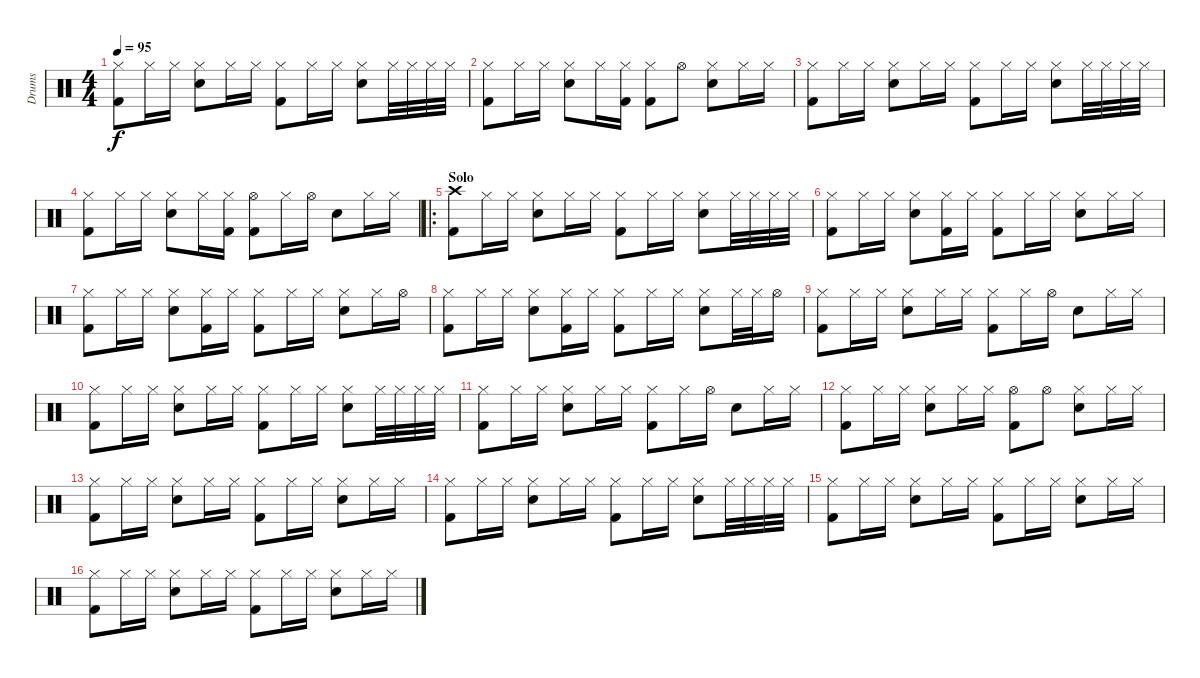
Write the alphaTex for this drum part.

\track ("Drums" "Drums") {instrument percussion}
\staff {score}
\articulation defaults
\ts (4 4)
\tempo 95
\clef neutral
\ks c
("Hi-Hat (closed)" "Kick (hit) 2").8{dy f} "Hi-Hat (closed)".16 "Hi-Hat (closed)".16 ("Hi-Hat (closed)" "Electric Snare (hit)").8 "Hi-Hat (closed)".16 "Hi-Hat (closed)".16 ("Hi-Hat (closed)" "Kick (hit) 2").8 "Hi-Hat (closed)".16 "Hi-Hat (closed)".16 ("Hi-Hat (closed)" "Electric Snare (hit)").8 "Hi-Hat (closed)".32 "Hi-Hat (closed)".32 "Hi-Hat (closed)".32 "Hi-Hat (closed)".32 |
("Hi-Hat (closed)" "Kick (hit) 2").8 "Hi-Hat (closed)".16 "Hi-Hat (closed)".16 ("Hi-Hat (closed)" "Electric Snare (hit)").8 "Hi-Hat (closed)".16 ("Hi-Hat (closed)" "Kick (hit) 2").16 ("Hi-Hat (closed)" "Kick (hit) 2").8 "Hi-Hat (open)".8 ("Hi-Hat (closed)" "Electric Snare (hit)").8 "Hi-Hat (closed)".16 "Hi-Hat (closed)".16 |
("Hi-Hat (closed)" "Kick (hit) 2").8 "Hi-Hat (closed)".16 "Hi-Hat (closed)".16 ("Hi-Hat (closed)" "Electric Snare (hit)").8 "Hi-Hat (closed)".16 "Hi-Hat (closed)".16 ("Hi-Hat (closed)" "Kick (hit) 2").8 "Hi-Hat (closed)".16 "Hi-Hat (closed)".16 ("Hi-Hat (closed)" "Electric Snare (hit)").8 "Hi-Hat (closed)".32 "Hi-Hat (closed)".32 "Hi-Hat (closed)".32 "Hi-Hat (closed)".32 |
("Hi-Hat (closed)" "Kick (hit) 2").8 "Hi-Hat (closed)".16 "Hi-Hat (closed)".16 ("Hi-Hat (closed)" "Electric Snare (hit)").8 "Hi-Hat (closed)".16 ("Hi-Hat (closed)" "Kick (hit) 2").16 ("Hi-Hat (open)" "Kick (hit) 2").8 "Hi-Hat (closed)".16 "Hi-Hat (open)".16 "Electric Snare (hit)".8 "Hi-Hat (closed)".16 "Hi-Hat (closed)".16 |
\ro
\section ("" "Solo")
("Crash high (hit)" "Kick (hit) 2").8 "Hi-Hat (closed)".16 "Hi-Hat (closed)".16 ("Hi-Hat (closed)" "Electric Snare (hit)").8 "Hi-Hat (closed)".16 "Hi-Hat (closed)".16 ("Hi-Hat (closed)" "Kick (hit) 2").8 "Hi-Hat (closed)".16 "Hi-Hat (closed)".16 ("Hi-Hat (closed)" "Electric Snare (hit)").8 "Hi-Hat (closed)".32 "Hi-Hat (closed)".32 "Hi-Hat (closed)".32 "Hi-Hat (closed)".32 |
("Hi-Hat (closed)" "Kick (hit) 2").8 "Hi-Hat (closed)".16 "Hi-Hat (closed)".16 ("Hi-Hat (closed)" "Electric Snare (hit)").8 ("Hi-Hat (closed)" "Kick (hit) 2").16 "Hi-Hat (closed)".16 ("Hi-Hat (closed)" "Kick (hit) 2").8 "Hi-Hat (closed)".16 "Hi-Hat (closed)".16 ("Hi-Hat (closed)" "Electric Snare (hit)").8 "Hi-Hat (closed)".16 "Hi-Hat (closed)".16 |
("Hi-Hat (closed)" "Kick (hit) 2").8 "Hi-Hat (closed)".16 "Hi-Hat (closed)".16 ("Hi-Hat (closed)" "Electric Snare (hit)").8 ("Hi-Hat (closed)" "Kick (hit) 2").16 "Hi-Hat (closed)".16 ("Hi-Hat (closed)" "Kick (hit) 2").8 "Hi-Hat (closed)".16 "Hi-Hat (closed)".16 ("Hi-Hat (closed)" "Electric Snare (hit)").8 "Hi-Hat (closed)".16 "Hi-Hat (open)".16 |
("Hi-Hat (closed)" "Kick (hit) 2").8 "Hi-Hat (closed)".16 "Hi-Hat (closed)".16 ("Hi-Hat (closed)" "Electric Snare (hit)").8 ("Hi-Hat (closed)" "Kick (hit) 2").16 "Hi-Hat (closed)".16 ("Hi-Hat (closed)" "Kick (hit) 2").8 "Hi-Hat (closed)".16 "Hi-Hat (closed)".16 ("Hi-Hat (closed)" "Electric Snare (hit)").8 "Hi-Hat (closed)".32 "Hi-Hat (closed)".32 "Hi-Hat (open)".16 |
("Hi-Hat (closed)" "Kick (hit) 2").8 "Hi-Hat (closed)".16 "Hi-Hat (closed)".16 ("Hi-Hat (closed)" "Electric Snare (hit)").8 "Hi-Hat (closed)".16 "Hi-Hat (closed)".16 ("Hi-Hat (closed)" "Kick (hit) 2").8 "Hi-Hat (closed)".16 "Hi-Hat (open)".16 "Electric Snare (hit)".8 "Hi-Hat (closed)".16 "Hi-Hat (closed)".16 |
("Hi-Hat (closed)" "Kick (hit) 2").8 "Hi-Hat (closed)".16 "Hi-Hat (closed)".16 ("Hi-Hat (closed)" "Electric Snare (hit)").8 "Hi-Hat (closed)".16 "Hi-Hat (closed)".16 ("Hi-Hat (closed)" "Kick (hit) 2").8 "Hi-Hat (closed)".16 "Hi-Hat (closed)".16 ("Hi-Hat (closed)" "Electric Snare (hit)").8 "Hi-Hat (closed)".32 "Hi-Hat (closed)".32 "Hi-Hat (closed)".32 "Hi-Hat (closed)".32 |
("Hi-Hat (closed)" "Kick (hit) 2").8 "Hi-Hat (closed)".16 "Hi-Hat (closed)".16 ("Hi-Hat (closed)" "Electric Snare (hit)").8 "Hi-Hat (closed)".16 "Hi-Hat (closed)".16 ("Hi-Hat (closed)" "Kick (hit) 2").8 "Hi-Hat (closed)".16 "Hi-Hat (open)".16 "Electric Snare (hit)".8 "Hi-Hat (closed)".16 "Hi-Hat (closed)".16 |
("Hi-Hat (closed)" "Kick (hit) 2").8 "Hi-Hat (closed)".16 "Hi-Hat (closed)".16 ("Hi-Hat (closed)" "Electric Snare (hit)").8 "Hi-Hat (closed)".16 "Hi-Hat (closed)".16 ("Hi-Hat (open)" "Kick (hit) 2").8 "Hi-Hat (open)".8 ("Hi-Hat (closed)" "Electric Snare (hit)").8 "Hi-Hat (closed)".16 "Hi-Hat (closed)".16 |
("Hi-Hat (closed)" "Kick (hit) 2").8 "Hi-Hat (closed)".16 "Hi-Hat (closed)".16 ("Hi-Hat (closed)" "Electric Snare (hit)").8 "Hi-Hat (closed)".16 "Hi-Hat (closed)".16 ("Hi-Hat (closed)" "Kick (hit) 2").8 "Hi-Hat (closed)".16 "Hi-Hat (closed)".16 ("Hi-Hat (closed)" "Electric Snare (hit)").8 "Hi-Hat (closed)".16 "Hi-Hat (closed)".16 |
("Hi-Hat (closed)" "Kick (hit) 2").8 "Hi-Hat (closed)".16 "Hi-Hat (closed)".16 ("Hi-Hat (closed)" "Electric Snare (hit)").8 "Hi-Hat (closed)".16 "Hi-Hat (closed)".16 ("Hi-Hat (closed)" "Kick (hit) 2").8 "Hi-Hat (closed)".16 "Hi-Hat (closed)".16 ("Hi-Hat (closed)" "Electric Snare (hit)").8 "Hi-Hat (closed)".32 "Hi-Hat (closed)".32 "Hi-Hat (closed)".32 "Hi-Hat (closed)".32 |
("Hi-Hat (closed)" "Kick (hit) 2").8 "Hi-Hat (closed)".16 "Hi-Hat (closed)".16 ("Hi-Hat (closed)" "Electric Snare (hit)").8 "Hi-Hat (closed)".16 "Hi-Hat (closed)".16 ("Hi-Hat (closed)" "Kick (hit) 2").8 "Hi-Hat (closed)".16 "Hi-Hat (closed)".16 ("Hi-Hat (closed)" "Electric Snare (hit)").8 "Hi-Hat (closed)".16 "Hi-Hat (closed)".16 |
("Hi-Hat (closed)" "Kick (hit) 2").8 "Hi-Hat (closed)".16 "Hi-Hat (closed)".16 ("Hi-Hat (closed)" "Electric Snare (hit)").8 "Hi-Hat (closed)".16 "Hi-Hat (closed)".16 ("Hi-Hat (closed)" "Kick (hit) 2").8 "Hi-Hat (closed)".16 "Hi-Hat (closed)".16 ("Hi-Hat (closed)" "Electric Snare (hit)").8 "Hi-Hat (closed)".16 "Hi-Hat (closed)".16
